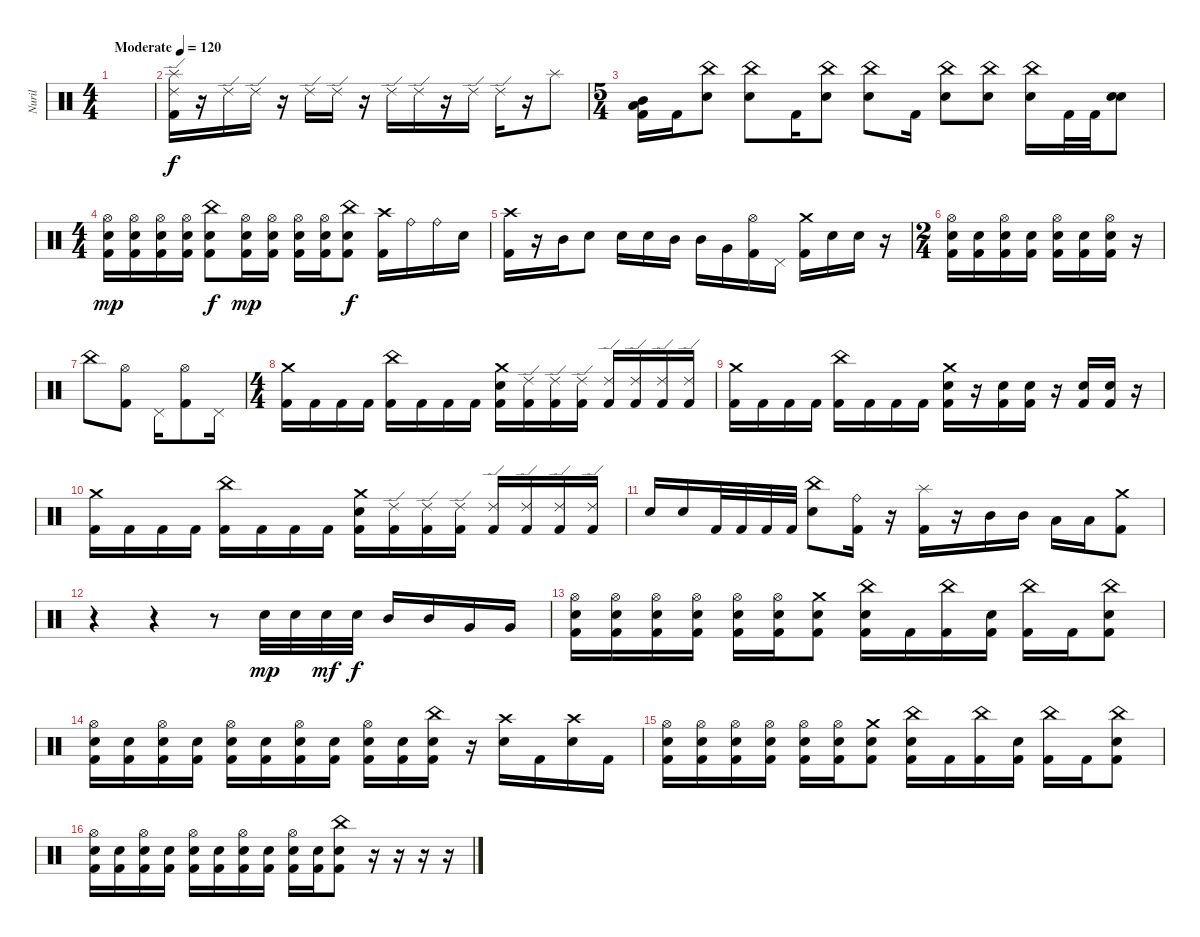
\track ("Nuril" "Nuril") {instrument percussion}
\staff {score}
\articulation defaults
\ts (4 4)
\tempo (120 "Moderate")
\clef neutral
\ks c
|
("Splash (hit)" "Kick (hit) 2" "Ride (edge) 2").16 r.16 "Ride (edge) 2".16 "Ride (edge) 2".16 r.16 "Ride (edge) 2".16 "Ride (edge) 2".16 r.16 "Ride (edge) 2".16 "Ride (edge) 2".16 r.16 "Ride (edge) 2".16 "Ride (edge) 2".16 r.16 "Splash (hit)".8 |
\ts (5 4)
("Low Tom (hit)" "Mid Tom (hit)" "Kick (hit) 2").16{bd 120} "Kick (hit) 2".16 ("China (hit)" "Electric Snare (hit)").8 ("China (hit)" "Electric Snare (hit)").8 "Kick (hit) 2".16 ("China (hit)" "Electric Snare (hit)").8 ("China (hit)" "Electric Snare (hit)").8 "Kick (hit) 2".16 ("China (hit)" "Electric Snare (hit)").8 ("China (hit)" "Electric Snare (hit)").8 ("China (hit)" "Electric Snare (hit)").16 "Kick (hit) 2".32 "Kick (hit) 2".32 ("Electric Snare (hit)" "Electric Snare (hit)").8{bu 480} |
\ts (4 4)
("Hi-Hat (open)" "Kick (hit) 2" "Electric Snare (hit)").16{dy mp} ("Hi-Hat (open)" "Kick (hit) 2" "Electric Snare (hit)").16 ("Hi-Hat (open)" "Kick (hit) 2" "Electric Snare (hit)").16 ("Hi-Hat (open)" "Kick (hit) 2" "Electric Snare (hit)").16 ("China (hit)" "Kick (hit) 2" "Electric Snare (hit)").8{dy f} ("Hi-Hat (open)" "Kick (hit) 2" "Electric Snare (hit)").16{dy mp} ("Hi-Hat (open)" "Kick (hit) 2" "Electric Snare (hit)").16 ("Hi-Hat (open)" "Kick (hit) 2" "Electric Snare (hit)").16 ("Hi-Hat (open)" "Kick (hit) 2" "Electric Snare (hit)").16 ("China (hit)" "Kick (hit) 2" "Electric Snare (hit)").8{dy f} ("Crash high (hit)" "Kick (hit) 2").16 "Ride (bell)".16 "Ride (bell)".16 "Electric Snare (hit)".16 |
("Crash high (hit)" "Kick (hit) 2").16 r.16 "Mid Tom (hit)".16 "Electric Snare (hit)".8 "Electric Snare (hit)".16 "Electric Snare (hit)".16 "Mid Tom (hit)".16 "Mid Tom (hit)".16 "Very Low Tom (hit)".16 ("Hi-Hat (open)" "Kick (hit) 2").16 "Pedal Hi-Hat (hit)".16 ("Crash medium (hit)" "Kick (hit) 2").16 "Electric Snare (hit)".16 "Electric Snare (hit)".16 r.16 |
\ts (2 4)
("Hi-Hat (open)" "Kick (hit) 2" "Electric Snare (hit)").16 ("Kick (hit) 2" "Electric Snare (hit)").16 ("Hi-Hat (open)" "Kick (hit) 2" "Electric Snare (hit)").16 ("Kick (hit) 2" "Electric Snare (hit)").16 ("Hi-Hat (open)" "Kick (hit) 2" "Electric Snare (hit)").16 ("Kick (hit) 2" "Electric Snare (hit)").16 ("Hi-Hat (open)" "Kick (hit) 2" "Electric Snare (hit)").16 r.16 |
"China (hit)".8 ("Hi-Hat (open)" "Kick (hit) 2").8 "Pedal Hi-Hat (hit)".16 ("Hi-Hat (open)" "Kick (hit) 2").8 "Pedal Hi-Hat (hit)".16 |
\ts (4 4)
("Crash medium (hit)" "Kick (hit) 2").16 "Kick (hit) 2".16 "Kick (hit) 2".16 "Kick (hit) 2".16 ("China (hit)" "Kick (hit) 2").16 "Kick (hit) 2".16 "Kick (hit) 2".16 "Kick (hit) 2".16 ("Crash medium (hit)" "Kick (hit) 2" "Electric Snare (hit)").16 ("Ride (edge) 2" "Kick (hit) 2").16 ("Ride (edge) 2" "Kick (hit) 2").16 ("Ride (edge) 2" "Kick (hit) 2").16 ("Ride (edge) 2" "Kick (hit) 2").16 ("Ride (edge) 2" "Kick (hit) 2").16 ("Ride (edge) 2" "Kick (hit) 2").16 ("Ride (edge) 2" "Kick (hit) 2").16 |
("Crash medium (hit)" "Kick (hit) 2").16 "Kick (hit) 2".16 "Kick (hit) 2".16 "Kick (hit) 2".16 ("China (hit)" "Kick (hit) 2").16 "Kick (hit) 2".16 "Kick (hit) 2".16 "Kick (hit) 2".16 ("Crash medium (hit)" "Kick (hit) 2" "Electric Snare (hit)").16 r.16 ("Electric Snare (hit)" "Kick (hit) 2").16 ("Electric Snare (hit)" "Kick (hit) 2").16 r.16 ("Electric Snare (hit)" "Kick (hit) 2").16 ("Electric Snare (hit)" "Kick (hit) 2").16 r.16 |
("Crash medium (hit)" "Kick (hit) 2").16 "Kick (hit) 2".16 "Kick (hit) 2".16 "Kick (hit) 2".16 ("China (hit)" "Kick (hit) 2").16 "Kick (hit) 2".16 "Kick (hit) 2".16 "Kick (hit) 2".16 ("Crash medium (hit)" "Kick (hit) 2" "Electric Snare (hit)").16 ("Ride (edge) 2" "Kick (hit) 2").16 ("Ride (edge) 2" "Kick (hit) 2").16 ("Ride (edge) 2" "Kick (hit) 2").16 ("Ride (edge) 2" "Kick (hit) 2").16 ("Ride (edge) 2" "Kick (hit) 2").16 ("Ride (edge) 2" "Kick (hit) 2").16 ("Ride (edge) 2" "Kick (hit) 2").16 |
"Electric Snare (hit)".16 "Electric Snare (hit)".16 "Kick (hit) 2".32 "Kick (hit) 2".32 "Kick (hit) 2".32 "Kick (hit) 2".32 ("China (hit)" "Electric Snare (hit)").8 ("Ride (bell)" "Kick (hit) 2").16 r.16 ("Splash (hit)" "Kick (hit) 2").16 r.16 "Mid Tom (hit)".16 "Mid Tom (hit)".16 "Low Tom (hit)".16 "Low Tom (hit)".16 ("Crash medium (hit)" "Kick (hit) 2").8 |
r.4 r.4 r.8 "Electric Snare (hit)".32{dy mp} "Electric Snare (hit)".32 "Electric Snare (hit)".32{dy mf} "Electric Snare (hit)".32{dy f} "Mid Tom (hit)".16 "Mid Tom (hit)".16 "Very Low Tom (hit)".16 "Very Low Tom (hit)".16 |
("Hi-Hat (open)" "Electric Snare (hit)" "Kick (hit) 2").16 ("Hi-Hat (open)" "Electric Snare (hit)" "Kick (hit) 2").16 ("Hi-Hat (open)" "Electric Snare (hit)" "Kick (hit) 2").16 ("Hi-Hat (open)" "Electric Snare (hit)" "Kick (hit) 2").16 ("Hi-Hat (open)" "Electric Snare (hit)" "Kick (hit) 2").16 ("Hi-Hat (open)" "Electric Snare (hit)" "Kick (hit) 2").16 ("Crash medium (hit)" "Electric Snare (hit)" "Kick (hit) 2").8 ("China (hit)" "Electric Snare (hit)" "Kick (hit) 2").16 "Kick (hit) 2".16 ("China (hit)" "Kick (hit) 2").16 ("Electric Snare (hit)" "Kick (hit) 2").16 ("China (hit)" "Kick (hit) 2").16 "Kick (hit) 2".16 ("China (hit)" "Electric Snare (hit)" "Kick (hit) 2").8 |
("Hi-Hat (open)" "Electric Snare (hit)" "Kick (hit) 2").16 ("Electric Snare (hit)" "Kick (hit) 2").16 ("Hi-Hat (open)" "Electric Snare (hit)" "Kick (hit) 2").16 ("Electric Snare (hit)" "Kick (hit) 2").16 ("Hi-Hat (open)" "Electric Snare (hit)" "Kick (hit) 2").16 ("Electric Snare (hit)" "Kick (hit) 2").16 ("Hi-Hat (open)" "Electric Snare (hit)" "Kick (hit) 2").16 ("Electric Snare (hit)" "Kick (hit) 2").16 ("Hi-Hat (open)" "Electric Snare (hit)" "Kick (hit) 2").16 ("Electric Snare (hit)" "Kick (hit) 2").16 ("China (hit)" "Electric Snare (hit)" "Kick (hit) 2").16 r.16 ("Crash high (hit)" "Electric Snare (hit)").16 "Kick (hit) 2".16 ("Crash high (hit)" "Electric Snare (hit)").16 "Kick (hit) 2".16 |
("Hi-Hat (open)" "Electric Snare (hit)" "Kick (hit) 2").16 ("Hi-Hat (open)" "Electric Snare (hit)" "Kick (hit) 2").16 ("Hi-Hat (open)" "Electric Snare (hit)" "Kick (hit) 2").16 ("Hi-Hat (open)" "Electric Snare (hit)" "Kick (hit) 2").16 ("Hi-Hat (open)" "Electric Snare (hit)" "Kick (hit) 2").16 ("Hi-Hat (open)" "Electric Snare (hit)" "Kick (hit) 2").16 ("Crash medium (hit)" "Electric Snare (hit)" "Kick (hit) 2").8 ("China (hit)" "Electric Snare (hit)" "Kick (hit) 2").16 "Kick (hit) 2".16 ("China (hit)" "Kick (hit) 2").16 ("Electric Snare (hit)" "Kick (hit) 2").16 ("China (hit)" "Kick (hit) 2").16 "Kick (hit) 2".16 ("China (hit)" "Electric Snare (hit)" "Kick (hit) 2").8 |
("Hi-Hat (open)" "Electric Snare (hit)" "Kick (hit) 2").16 ("Electric Snare (hit)" "Kick (hit) 2").16 ("Hi-Hat (open)" "Electric Snare (hit)" "Kick (hit) 2").16 ("Electric Snare (hit)" "Kick (hit) 2").16 ("Hi-Hat (open)" "Electric Snare (hit)" "Kick (hit) 2").16 ("Electric Snare (hit)" "Kick (hit) 2").16 ("Hi-Hat (open)" "Electric Snare (hit)" "Kick (hit) 2").16 ("Electric Snare (hit)" "Kick (hit) 2").16 ("Hi-Hat (open)" "Electric Snare (hit)" "Kick (hit) 2").16 ("Electric Snare (hit)" "Kick (hit) 2").16 ("China (hit)" "Electric Snare (hit)" "Kick (hit) 2").8 r.16 r.16 r.16 r.16
